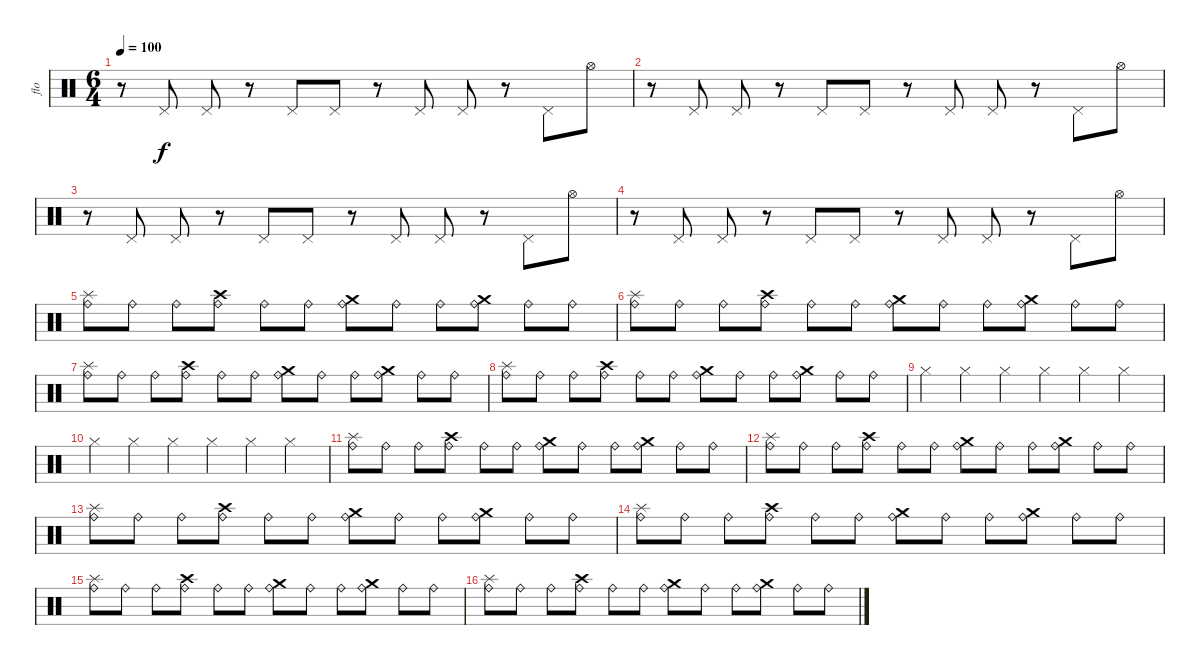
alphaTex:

\track ("flo" "flo") {instrument percussion}
\staff {score}
\articulation defaults
\ts (6 4)
\tempo 100
\clef neutral
\ks c
r.8{dy f} "Pedal Hi-Hat (hit)".8 "Pedal Hi-Hat (hit)".8 r.8 "Pedal Hi-Hat (hit)".8 "Pedal Hi-Hat (hit)".8 r.8 "Pedal Hi-Hat (hit)".8 "Pedal Hi-Hat (hit)".8 r.8 "Pedal Hi-Hat (hit)".8 "Hi-Hat (open)".8 |
r.8 "Pedal Hi-Hat (hit)".8 "Pedal Hi-Hat (hit)".8 r.8 "Pedal Hi-Hat (hit)".8 "Pedal Hi-Hat (hit)".8 r.8 "Pedal Hi-Hat (hit)".8 "Pedal Hi-Hat (hit)".8 r.8 "Pedal Hi-Hat (hit)".8 "Hi-Hat (open)".8 |
r.8 "Pedal Hi-Hat (hit)".8 "Pedal Hi-Hat (hit)".8 r.8 "Pedal Hi-Hat (hit)".8 "Pedal Hi-Hat (hit)".8 r.8 "Pedal Hi-Hat (hit)".8 "Pedal Hi-Hat (hit)".8 r.8 "Pedal Hi-Hat (hit)".8 "Hi-Hat (open)".8 |
r.8 "Pedal Hi-Hat (hit)".8 "Pedal Hi-Hat (hit)".8 r.8 "Pedal Hi-Hat (hit)".8 "Pedal Hi-Hat (hit)".8 r.8 "Pedal Hi-Hat (hit)".8 "Pedal Hi-Hat (hit)".8 r.8 "Pedal Hi-Hat (hit)".8 "Hi-Hat (open)".8 |
("Splash (hit)" "Ride (bell)").8 "Ride (bell)".8 "Ride (bell)".8 ("Crash high (hit)" "Ride (bell)").8 "Ride (bell)".8 "Ride (bell)".8 ("Crash medium (hit)" "Ride (bell)").8 "Ride (bell)".8 "Ride (bell)".8 ("Crash medium (hit)" "Ride (bell)").8 "Ride (bell)".8 "Ride (bell)".8 |
("Splash (hit)" "Ride (bell)").8 "Ride (bell)".8 "Ride (bell)".8 ("Crash high (hit)" "Ride (bell)").8 "Ride (bell)".8 "Ride (bell)".8 ("Crash medium (hit)" "Ride (bell)").8 "Ride (bell)".8 "Ride (bell)".8 ("Crash medium (hit)" "Ride (bell)").8 "Ride (bell)".8 "Ride (bell)".8 |
("Splash (hit)" "Ride (bell)").8 "Ride (bell)".8 "Ride (bell)".8 ("Crash high (hit)" "Ride (bell)").8 "Ride (bell)".8 "Ride (bell)".8 ("Crash medium (hit)" "Ride (bell)").8 "Ride (bell)".8 "Ride (bell)".8 ("Crash medium (hit)" "Ride (bell)").8 "Ride (bell)".8 "Ride (bell)".8 |
("Splash (hit)" "Ride (bell)").8 "Ride (bell)".8 "Ride (bell)".8 ("Crash high (hit)" "Ride (bell)").8 "Ride (bell)".8 "Ride (bell)".8 ("Crash medium (hit)" "Ride (bell)").8 "Ride (bell)".8 "Ride (bell)".8 ("Crash medium (hit)" "Ride (bell)").8 "Ride (bell)".8 "Ride (bell)".8 |
"Hi-Hat (closed)".4 "Hi-Hat (closed)".4 "Hi-Hat (closed)".4 "Hi-Hat (closed)".4 "Hi-Hat (closed)".4 "Hi-Hat (closed)".4 |
"Hi-Hat (closed)".4 "Hi-Hat (closed)".4 "Hi-Hat (closed)".4 "Hi-Hat (closed)".4 "Hi-Hat (closed)".4 "Hi-Hat (closed)".4 |
("Splash (hit)" "Ride (bell)").8 "Ride (bell)".8 "Ride (bell)".8 ("Crash high (hit)" "Ride (bell)").8 "Ride (bell)".8 "Ride (bell)".8 ("Crash medium (hit)" "Ride (bell)").8 "Ride (bell)".8 "Ride (bell)".8 ("Crash medium (hit)" "Ride (bell)").8 "Ride (bell)".8 "Ride (bell)".8 |
("Splash (hit)" "Ride (bell)").8 "Ride (bell)".8 "Ride (bell)".8 ("Crash high (hit)" "Ride (bell)").8 "Ride (bell)".8 "Ride (bell)".8 ("Crash medium (hit)" "Ride (bell)").8 "Ride (bell)".8 "Ride (bell)".8 ("Crash medium (hit)" "Ride (bell)").8 "Ride (bell)".8 "Ride (bell)".8 |
("Splash (hit)" "Ride (bell)").8 "Ride (bell)".8 "Ride (bell)".8 ("Crash high (hit)" "Ride (bell)").8 "Ride (bell)".8 "Ride (bell)".8 ("Crash medium (hit)" "Ride (bell)").8 "Ride (bell)".8 "Ride (bell)".8 ("Crash medium (hit)" "Ride (bell)").8 "Ride (bell)".8 "Ride (bell)".8 |
("Splash (hit)" "Ride (bell)").8 "Ride (bell)".8 "Ride (bell)".8 ("Crash high (hit)" "Ride (bell)").8 "Ride (bell)".8 "Ride (bell)".8 ("Crash medium (hit)" "Ride (bell)").8 "Ride (bell)".8 "Ride (bell)".8 ("Crash medium (hit)" "Ride (bell)").8 "Ride (bell)".8 "Ride (bell)".8 |
("Splash (hit)" "Ride (bell)").8 "Ride (bell)".8 "Ride (bell)".8 ("Crash high (hit)" "Ride (bell)").8 "Ride (bell)".8 "Ride (bell)".8 ("Crash medium (hit)" "Ride (bell)").8 "Ride (bell)".8 "Ride (bell)".8 ("Crash medium (hit)" "Ride (bell)").8 "Ride (bell)".8 "Ride (bell)".8 |
("Splash (hit)" "Ride (bell)").8 "Ride (bell)".8 "Ride (bell)".8 ("Crash high (hit)" "Ride (bell)").8 "Ride (bell)".8 "Ride (bell)".8 ("Crash medium (hit)" "Ride (bell)").8 "Ride (bell)".8 "Ride (bell)".8 ("Crash medium (hit)" "Ride (bell)").8 "Ride (bell)".8 "Ride (bell)".8
